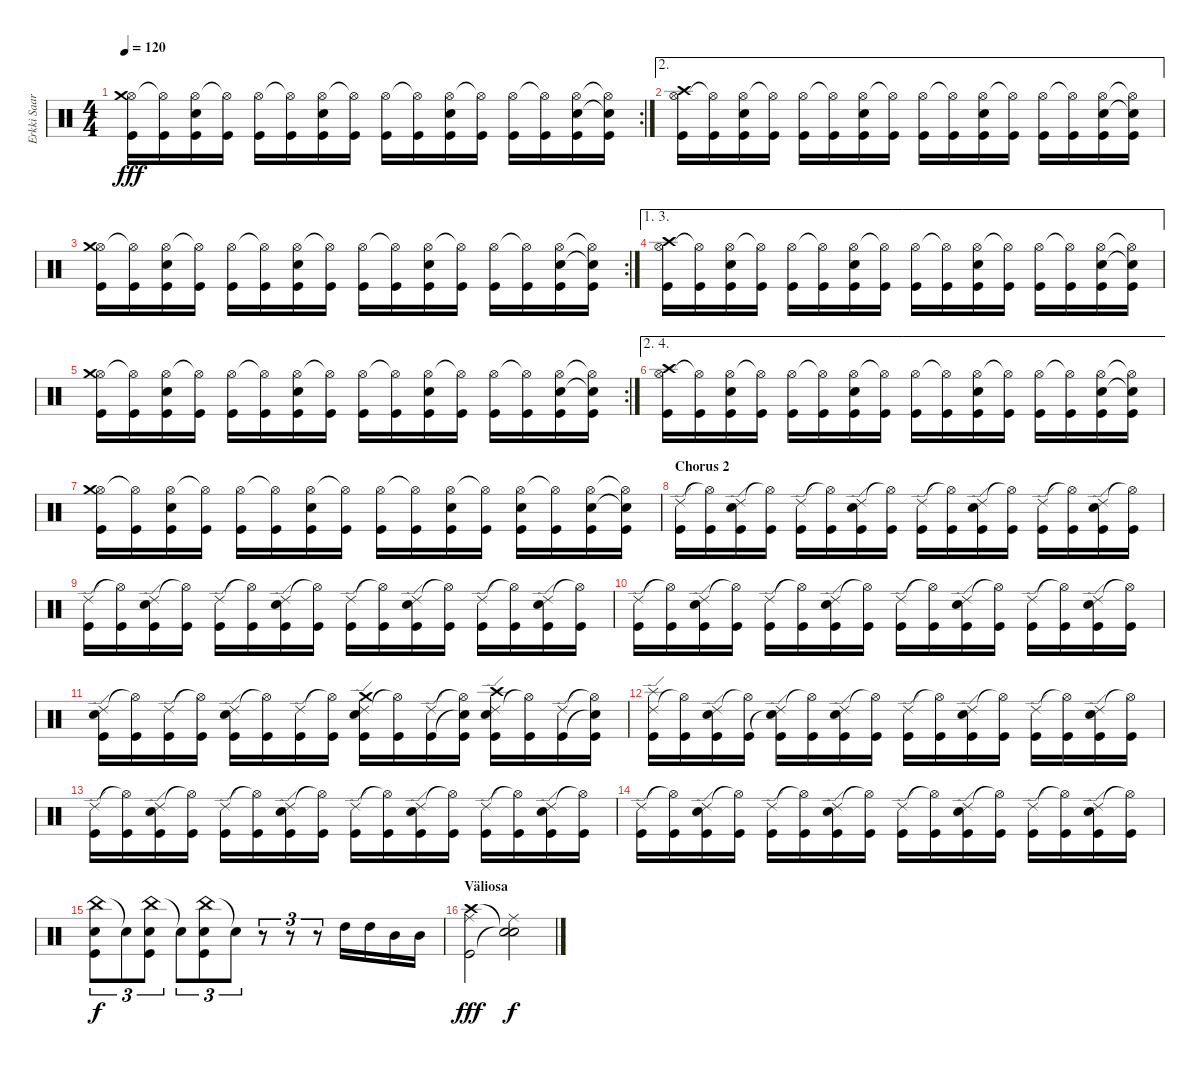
\track ("Erkki Saarinen" "Erkki Saar") {instrument percussion}
\staff {score}
\articulation defaults
\rc 2
\ts (4 4)
\tempo 120
\clef neutral
\ks c
("Hi-Hat (open)" "Crash medium (hit)" "Kick (hit)").16{dy fff} ("Hi-Hat (open)"{t} "Kick (hit)").16 ("Hi-Hat (open)" "Snare (hit) 2" "Kick (hit)").16 ("Hi-Hat (open)"{t} "Kick (hit)").16 ("Hi-Hat (open)" "Kick (hit)").16 ("Hi-Hat (open)"{t} "Kick (hit)").16 ("Hi-Hat (open)" "Snare (hit) 2" "Kick (hit)").16 ("Hi-Hat (open)"{t} "Kick (hit)").16 ("Hi-Hat (open)" "Kick (hit)").16 ("Hi-Hat (open)"{t} "Kick (hit)").16 ("Hi-Hat (open)" "Snare (hit) 2" "Kick (hit)").16 ("Hi-Hat (open)"{t} "Kick (hit)").16 ("Hi-Hat (open)" "Kick (hit)").16 ("Hi-Hat (open)"{t} "Kick (hit)").16 ("Hi-Hat (open)" "Snare (hit) 2" "Kick (hit)").16 ("Hi-Hat (open)"{t} "Snare (hit)"{t} "Kick (hit)").16 |
\ae 2
("Hi-Hat (open)" "Crash high (hit)" "Kick (hit)").16 ("Hi-Hat (open)"{t} "Kick (hit)").16 ("Hi-Hat (open)" "Snare (hit) 2" "Kick (hit)").16 ("Hi-Hat (open)"{t} "Kick (hit)").16 ("Hi-Hat (open)" "Kick (hit)").16 ("Hi-Hat (open)"{t} "Kick (hit)").16 ("Hi-Hat (open)" "Snare (hit) 2" "Kick (hit)").16 ("Hi-Hat (open)"{t} "Kick (hit)").16 ("Hi-Hat (open)" "Kick (hit)").16 ("Hi-Hat (open)"{t} "Kick (hit)").16 ("Hi-Hat (open)" "Snare (hit) 2" "Kick (hit)").16 ("Hi-Hat (open)"{t} "Kick (hit)").16 ("Hi-Hat (open)" "Kick (hit)").16 ("Hi-Hat (open)"{t} "Kick (hit)").16 ("Hi-Hat (open)" "Snare (hit) 2" "Kick (hit)").16 ("Hi-Hat (open)"{t} "Snare (hit)"{t} "Kick (hit)").16 |
\rc 2
("Hi-Hat (open)" "Crash medium (hit)" "Kick (hit)").16 ("Hi-Hat (open)"{t} "Kick (hit)").16 ("Hi-Hat (open)" "Snare (hit) 2" "Kick (hit)").16 ("Hi-Hat (open)"{t} "Kick (hit)").16 ("Hi-Hat (open)" "Kick (hit)").16 ("Hi-Hat (open)"{t} "Kick (hit)").16 ("Hi-Hat (open)" "Snare (hit) 2" "Kick (hit)").16 ("Hi-Hat (open)"{t} "Kick (hit)").16 ("Hi-Hat (open)" "Kick (hit)").16 ("Hi-Hat (open)"{t} "Kick (hit)").16 ("Hi-Hat (open)" "Snare (hit) 2" "Kick (hit)").16 ("Hi-Hat (open)"{t} "Kick (hit)").16 ("Hi-Hat (open)" "Kick (hit)").16 ("Hi-Hat (open)"{t} "Kick (hit)").16 ("Hi-Hat (open)" "Snare (hit) 2" "Kick (hit)").16 ("Hi-Hat (open)"{t} "Snare (hit)"{t} "Kick (hit)").16 |
\ae (1 3)
("Hi-Hat (open)" "Crash high (hit)" "Kick (hit)").16 ("Hi-Hat (open)"{t} "Kick (hit)").16 ("Hi-Hat (open)" "Snare (hit) 2" "Kick (hit)").16 ("Hi-Hat (open)"{t} "Kick (hit)").16 ("Hi-Hat (open)" "Kick (hit)").16 ("Hi-Hat (open)"{t} "Kick (hit)").16 ("Hi-Hat (open)" "Snare (hit) 2" "Kick (hit)").16 ("Hi-Hat (open)"{t} "Kick (hit)").16 ("Hi-Hat (open)" "Kick (hit)").16 ("Hi-Hat (open)"{t} "Kick (hit)").16 ("Hi-Hat (open)" "Snare (hit) 2" "Kick (hit)").16 ("Hi-Hat (open)"{t} "Kick (hit)").16 ("Hi-Hat (open)" "Kick (hit)").16 ("Hi-Hat (open)"{t} "Kick (hit)").16 ("Hi-Hat (open)" "Snare (hit) 2" "Kick (hit)").16 ("Hi-Hat (open)"{t} "Snare (hit)"{t} "Kick (hit)").16 |
\rc 2
("Hi-Hat (open)" "Crash medium (hit)" "Kick (hit)").16 ("Hi-Hat (open)"{t} "Kick (hit)").16 ("Hi-Hat (open)" "Snare (hit) 2" "Kick (hit)").16 ("Hi-Hat (open)"{t} "Kick (hit)").16 ("Hi-Hat (open)" "Kick (hit)").16 ("Hi-Hat (open)"{t} "Kick (hit)").16 ("Hi-Hat (open)" "Snare (hit) 2" "Kick (hit)").16 ("Hi-Hat (open)"{t} "Kick (hit)").16 ("Hi-Hat (open)" "Kick (hit)").16 ("Hi-Hat (open)"{t} "Kick (hit)").16 ("Hi-Hat (open)" "Snare (hit) 2" "Kick (hit)").16 ("Hi-Hat (open)"{t} "Kick (hit)").16 ("Hi-Hat (open)" "Kick (hit)").16 ("Hi-Hat (open)"{t} "Kick (hit)").16 ("Hi-Hat (open)" "Snare (hit) 2" "Kick (hit)").16 ("Hi-Hat (open)"{t} "Snare (hit)"{t} "Kick (hit)").16 |
\ae (2 4)
("Hi-Hat (open)" "Crash high (hit)" "Kick (hit)").16 ("Hi-Hat (open)"{t} "Kick (hit)").16 ("Hi-Hat (open)" "Snare (hit) 2" "Kick (hit)").16 ("Hi-Hat (open)"{t} "Kick (hit)").16 ("Hi-Hat (open)" "Kick (hit)").16 ("Hi-Hat (open)"{t} "Kick (hit)").16 ("Hi-Hat (open)" "Snare (hit) 2" "Kick (hit)").16 ("Hi-Hat (open)"{t} "Kick (hit)").16 ("Hi-Hat (open)" "Kick (hit)").16 ("Hi-Hat (open)"{t} "Kick (hit)").16 ("Hi-Hat (open)" "Snare (hit) 2" "Kick (hit)").16 ("Hi-Hat (open)"{t} "Kick (hit)").16 ("Hi-Hat (open)" "Kick (hit)").16 ("Hi-Hat (open)"{t} "Kick (hit)").16 ("Hi-Hat (open)" "Snare (hit) 2" "Kick (hit)").16 ("Hi-Hat (open)"{t} "Snare (hit)"{t} "Kick (hit)").16 |
("Hi-Hat (open)" "Crash medium (hit)" "Kick (hit)").16 ("Hi-Hat (open)"{t} "Kick (hit)").16 ("Hi-Hat (open)" "Snare (hit) 2" "Kick (hit)").16 ("Hi-Hat (open)"{t} "Kick (hit)").16 ("Hi-Hat (open)" "Kick (hit)").16 ("Hi-Hat (open)"{t} "Kick (hit)").16 ("Hi-Hat (open)" "Snare (hit) 2" "Kick (hit)").16 ("Hi-Hat (open)"{t} "Kick (hit)").16 ("Hi-Hat (open)" "Kick (hit)").16 ("Hi-Hat (open)"{t} "Kick (hit)").16 ("Hi-Hat (open)" "Snare (hit) 2" "Kick (hit)").16 ("Hi-Hat (open)"{t} "Kick (hit)").16 ("Hi-Hat (open)" "Snare (hit) 2" "Kick (hit)").16 ("Hi-Hat (open)"{t} "Kick (hit)").16 ("Hi-Hat (open)" "Snare (hit) 2" "Kick (hit)").16 ("Hi-Hat (open)"{t} "Snare (hit)"{t} "Kick (hit)").16 |
\section ("" "Chorus 2")
("Ride (edge) 2" "Kick (hit)").16 ("Hi-Hat (open)"{t} "Kick (hit)").16 ("Ride (edge) 2" "Snare (hit) 2" "Kick (hit)").16 ("Hi-Hat (open)"{t} "Kick (hit)").16 ("Ride (edge) 2" "Kick (hit)").16 ("Hi-Hat (open)"{t} "Kick (hit)").16 ("Ride (edge) 2" "Snare (hit) 2" "Kick (hit)").16 ("Hi-Hat (open)"{t} "Kick (hit)").16 ("Ride (edge) 2" "Kick (hit)").16 ("Hi-Hat (open)"{t} "Kick (hit)").16 ("Ride (edge) 2" "Snare (hit) 2" "Kick (hit)").16 ("Hi-Hat (open)"{t} "Kick (hit)").16 ("Ride (edge) 2" "Kick (hit)").16 ("Hi-Hat (open)"{t} "Kick (hit)").16 ("Ride (edge) 2" "Snare (hit) 2" "Kick (hit)").16 ("Hi-Hat (open)"{t} "Kick (hit)").16 |
("Ride (edge) 2" "Kick (hit)").16 ("Hi-Hat (open)"{t} "Kick (hit)").16 ("Ride (edge) 2" "Snare (hit) 2" "Kick (hit)").16 ("Hi-Hat (open)"{t} "Kick (hit)").16 ("Ride (edge) 2" "Kick (hit)").16 ("Hi-Hat (open)"{t} "Kick (hit)").16 ("Ride (edge) 2" "Snare (hit) 2" "Kick (hit)").16 ("Hi-Hat (open)"{t} "Kick (hit)").16 ("Ride (edge) 2" "Kick (hit)").16 ("Hi-Hat (open)"{t} "Kick (hit)").16 ("Ride (edge) 2" "Snare (hit) 2" "Kick (hit)").16 ("Hi-Hat (open)"{t} "Kick (hit)").16 ("Ride (edge) 2" "Kick (hit)").16 ("Hi-Hat (open)"{t} "Kick (hit)").16 ("Ride (edge) 2" "Snare (hit) 2" "Kick (hit)").16 ("Hi-Hat (open)"{t} "Kick (hit)").16 |
("Ride (edge) 2" "Kick (hit)").16 ("Hi-Hat (open)"{t} "Kick (hit)").16 ("Ride (edge) 2" "Snare (hit) 2" "Kick (hit)").16 ("Hi-Hat (open)"{t} "Kick (hit)").16 ("Ride (edge) 2" "Kick (hit)").16 ("Hi-Hat (open)"{t} "Kick (hit)").16 ("Ride (edge) 2" "Snare (hit) 2" "Kick (hit)").16 ("Hi-Hat (open)"{t} "Kick (hit)").16 ("Ride (edge) 2" "Kick (hit)").16 ("Hi-Hat (open)"{t} "Kick (hit)").16 ("Ride (edge) 2" "Snare (hit) 2" "Kick (hit)").16 ("Hi-Hat (open)"{t} "Kick (hit)").16 ("Ride (edge) 2" "Kick (hit)").16 ("Hi-Hat (open)"{t} "Kick (hit)").16 ("Ride (edge) 2" "Snare (hit) 2" "Kick (hit)").16 ("Hi-Hat (open)"{t} "Kick (hit)").16 |
("Ride (edge) 2" "Snare (hit) 2" "Kick (hit)").16 ("Hi-Hat (open)"{t} "Kick (hit)").16 ("Ride (edge) 2" "Kick (hit)").16 ("Hi-Hat (open)"{t} "Kick (hit)").16 ("Ride (edge) 2" "Snare (hit) 2" "Kick (hit)").16 ("Hi-Hat (open)"{t} "Kick (hit)").16 ("Ride (edge) 2" "Kick (hit)").16 ("Hi-Hat (open)"{t} "Kick (hit)").16 ("Ride (edge) 2" "Crash medium (hit)" "Snare (hit) 2" "Kick (hit)").16 ("Hi-Hat (open)"{t} "Kick (hit)").16 ("Ride (edge) 2" "Kick (hit)").16 ("Hi-Hat (open)"{t} "Snare (hit)"{t} "Kick (hit)").16 ("Ride (edge) 2" "Crash high (hit)" "Snare (hit) 2" "Kick (hit)").16 ("Hi-Hat (open)"{t} "Kick (hit)").16 ("Ride (edge) 2" "Kick (hit)").16 ("Hi-Hat (open)"{t} "Snare (hit)"{t} "Kick (hit)").16 |
("Ride (edge) 2" "Splash (hit)" "Kick (hit)").16 ("Hi-Hat (open)"{t} "Kick (hit)").16 ("Ride (edge) 2" "Snare (hit) 2" "Kick (hit)").16 ("Hi-Hat (open)"{t} "Kick (hit)").16 ("Ride (edge) 2" "Snare (hit)"{t} "Kick (hit)").16 ("Hi-Hat (open)"{t} "Kick (hit)").16 ("Ride (edge) 2" "Snare (hit) 2" "Kick (hit)").16 ("Hi-Hat (open)"{t} "Kick (hit)").16 ("Ride (edge) 2" "Kick (hit)").16 ("Hi-Hat (open)"{t} "Kick (hit)").16 ("Ride (edge) 2" "Snare (hit) 2" "Kick (hit)").16 ("Hi-Hat (open)"{t} "Kick (hit)").16 ("Ride (edge) 2" "Kick (hit)").16 ("Hi-Hat (open)"{t} "Kick (hit)").16 ("Ride (edge) 2" "Snare (hit) 2" "Kick (hit)").16 ("Hi-Hat (open)"{t} "Kick (hit)").16 |
("Ride (edge) 2" "Kick (hit)").16 ("Hi-Hat (open)"{t} "Kick (hit)").16 ("Ride (edge) 2" "Snare (hit) 2" "Kick (hit)").16 ("Hi-Hat (open)"{t} "Kick (hit)").16 ("Ride (edge) 2" "Kick (hit)").16 ("Hi-Hat (open)"{t} "Kick (hit)").16 ("Ride (edge) 2" "Snare (hit) 2" "Kick (hit)").16 ("Hi-Hat (open)"{t} "Kick (hit)").16 ("Ride (edge) 2" "Kick (hit)").16 ("Hi-Hat (open)"{t} "Kick (hit)").16 ("Ride (edge) 2" "Snare (hit) 2" "Kick (hit)").16 ("Hi-Hat (open)"{t} "Kick (hit)").16 ("Ride (edge) 2" "Kick (hit)").16 ("Hi-Hat (open)"{t} "Kick (hit)").16 ("Ride (edge) 2" "Snare (hit) 2" "Kick (hit)").16 ("Hi-Hat (open)"{t} "Kick (hit)").16 |
("Ride (edge) 2" "Kick (hit)").16 ("Hi-Hat (open)"{t} "Kick (hit)").16 ("Ride (edge) 2" "Snare (hit) 2" "Kick (hit)").16 ("Hi-Hat (open)"{t} "Kick (hit)").16 ("Ride (edge) 2" "Kick (hit)").16 ("Hi-Hat (open)"{t} "Kick (hit)").16 ("Ride (edge) 2" "Snare (hit) 2" "Kick (hit)").16 ("Hi-Hat (open)"{t} "Kick (hit)").16 ("Ride (edge) 2" "Kick (hit)").16 ("Hi-Hat (open)"{t} "Kick (hit)").16 ("Ride (edge) 2" "Snare (hit) 2" "Kick (hit)").16 ("Hi-Hat (open)"{t} "Kick (hit)").16 ("Ride (edge) 2" "Kick (hit)").16 ("Hi-Hat (open)"{t} "Kick (hit)").16 ("Ride (edge) 2" "Snare (hit) 2" "Kick (hit)").16 ("Hi-Hat (open)"{t} "Kick (hit)").16 |
("China (hit)" "Snare (hit) 2" "Kick (hit)").8{tu (3 2) dy f} "Snare (hit)"{t}.8{tu (3 2)} ("China (hit)" "Snare (hit) 2" "Kick (hit)").8{tu (3 2)} "Snare (hit)"{t}.8{tu (3 2)} ("China (hit)" "Snare (hit) 2" "Kick (hit)").8{tu (3 2)} "Snare (hit)"{t}.8{tu (3 2)} r.8{tu (3 2)} r.8{tu (3 2)} r.8{tu (3 2)} "High Tom (hit)".16 "High Tom (hit)".16 "Mid Tom (hit)".16 "Mid Tom (hit)".16 |
\section ("" "Väliosa")
("Ride (middle)" "Crash high (hit)" "Kick (hit)").2{dy fff balance 9} ("Ride (middle)" "Snare (hit)"{t} "Snare (hit)"{t}).2{dy f}
